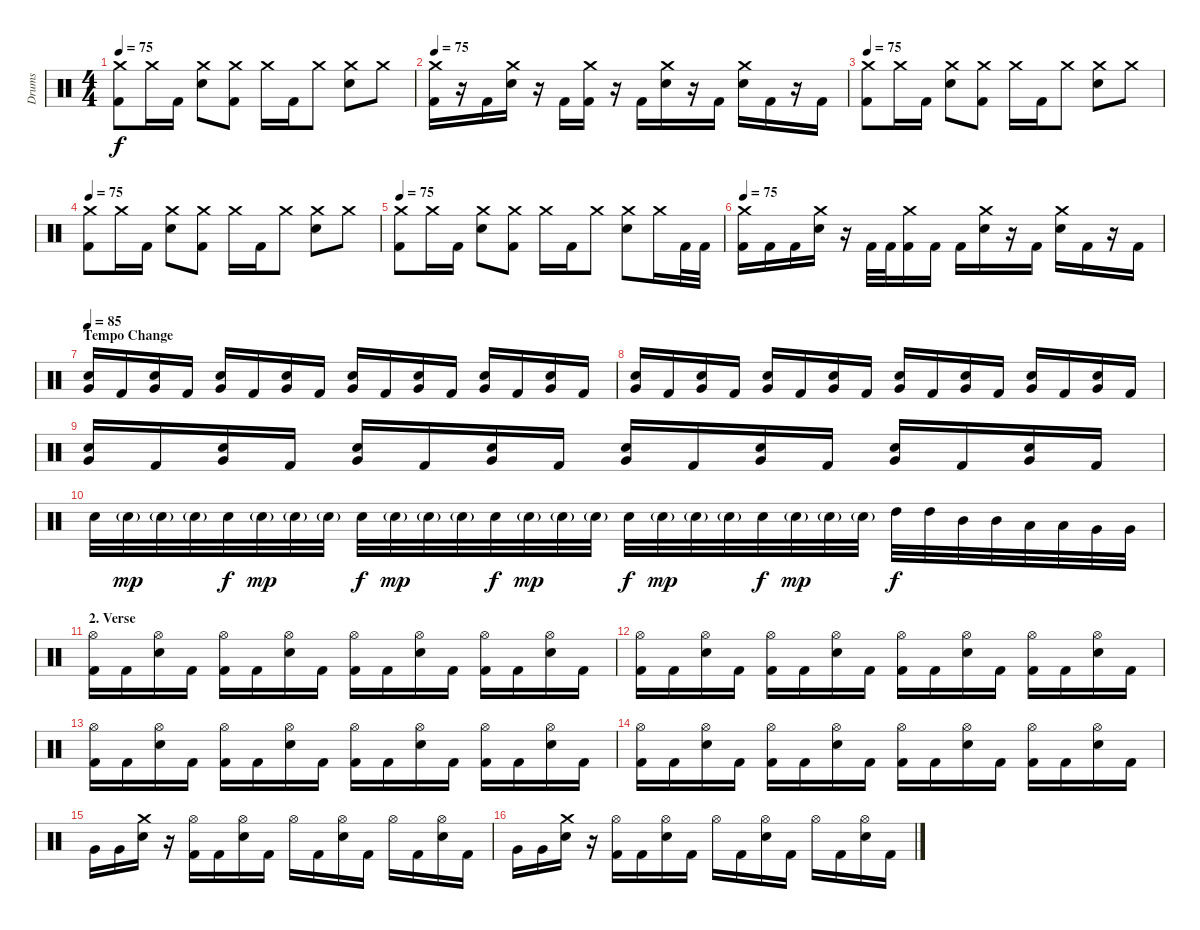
\track ("Drums" "Drums") {instrument percussion}
\staff {score}
\articulation defaults
\ts (4 4)
\tempo 75
\clef neutral
\ks c
("Crash medium (hit)" "Kick (hit) 2").8{dy f} "Crash medium (hit)".16 "Kick (hit) 2".16 ("Crash medium (hit)" "Electric Snare (hit)").8 ("Crash medium (hit)" "Kick (hit) 2").8 "Crash medium (hit)".16 "Kick (hit) 2".16 "Crash medium (hit)".8 ("Crash medium (hit)" "Electric Snare (hit)").8 "Crash medium (hit)".8 |
\tempo 70
\tempo 75
("Crash medium (hit)" "Kick (hit) 2").16 r.16 "Kick (hit) 2".16 ("Crash medium (hit)" "Electric Snare (hit)").16 r.16 "Kick (hit) 2".16 ("Crash medium (hit)" "Kick (hit) 2").16 r.16 "Kick (hit) 2".16 ("Crash medium (hit)" "Electric Snare (hit)").16 r.16 "Kick (hit) 2".16 ("Crash medium (hit)" "Electric Snare (hit)").16 "Kick (hit) 2".16 r.16 "Kick (hit) 2".16 |
\tempo 75
("Crash medium (hit)" "Kick (hit) 2").8 "Crash medium (hit)".16 "Kick (hit) 2".16 ("Crash medium (hit)" "Electric Snare (hit)").8 ("Crash medium (hit)" "Kick (hit) 2").8 "Crash medium (hit)".16 "Kick (hit) 2".16 "Crash medium (hit)".8 ("Crash medium (hit)" "Electric Snare (hit)").8 "Crash medium (hit)".8 |
\tempo 75
("Crash medium (hit)" "Kick (hit) 2").8 "Crash medium (hit)".16 "Kick (hit) 2".16 ("Crash medium (hit)" "Electric Snare (hit)").8 ("Crash medium (hit)" "Kick (hit) 2").8 "Crash medium (hit)".16 "Kick (hit) 2".16 "Crash medium (hit)".8 ("Crash medium (hit)" "Electric Snare (hit)").8 "Crash medium (hit)".8 |
\tempo 75
("Crash medium (hit)" "Kick (hit) 2").8 "Crash medium (hit)".16 "Kick (hit) 2".16 ("Crash medium (hit)" "Electric Snare (hit)").8 ("Crash medium (hit)" "Kick (hit) 2").8 "Crash medium (hit)".16 "Kick (hit) 2".16 "Crash medium (hit)".8 ("Crash medium (hit)" "Electric Snare (hit)").8 "Crash medium (hit)".16 "Kick (hit) 2".32 "Kick (hit) 2".32 |
\tempo 75
("Crash medium (hit)" "Kick (hit) 2").16 "Kick (hit) 2".16 "Kick (hit) 2".16 ("Crash medium (hit)" "Electric Snare (hit)").16 r.16 "Kick (hit) 2".32 "Kick (hit) 2".32 ("Crash medium (hit)" "Kick (hit) 2").16 "Kick (hit) 2".16 "Kick (hit) 2".16 ("Crash medium (hit)" "Electric Snare (hit)").16 r.16 "Kick (hit) 2".16 ("Crash medium (hit)" "Electric Snare (hit)").16 "Kick (hit) 2".16 r.16 "Kick (hit) 2".16 |
\section ("" "Tempo Change")
\tempo 85
("Electric Snare (hit)" "Very Low Tom (hit)").16 "Kick (hit) 2".16 ("Electric Snare (hit)" "Very Low Tom (hit)").16 "Kick (hit) 2".16 ("Electric Snare (hit)" "Very Low Tom (hit)").16 "Kick (hit) 2".16 ("Electric Snare (hit)" "Very Low Tom (hit)").16 "Kick (hit) 2".16 ("Electric Snare (hit)" "Very Low Tom (hit)").16 "Kick (hit) 2".16 ("Electric Snare (hit)" "Very Low Tom (hit)").16 "Kick (hit) 2".16 ("Electric Snare (hit)" "Very Low Tom (hit)").16 "Kick (hit) 2".16 ("Electric Snare (hit)" "Very Low Tom (hit)").16 "Kick (hit) 2".16 |
("Electric Snare (hit)" "Very Low Tom (hit)").16 "Kick (hit) 2".16 ("Electric Snare (hit)" "Very Low Tom (hit)").16 "Kick (hit) 2".16 ("Electric Snare (hit)" "Very Low Tom (hit)").16 "Kick (hit) 2".16 ("Electric Snare (hit)" "Very Low Tom (hit)").16 "Kick (hit) 2".16 ("Electric Snare (hit)" "Very Low Tom (hit)").16 "Kick (hit) 2".16 ("Electric Snare (hit)" "Very Low Tom (hit)").16 "Kick (hit) 2".16 ("Electric Snare (hit)" "Very Low Tom (hit)").16 "Kick (hit) 2".16 ("Electric Snare (hit)" "Very Low Tom (hit)").16 "Kick (hit) 2".16 |
("Electric Snare (hit)" "Very Low Tom (hit)").16 "Kick (hit) 2".16 ("Electric Snare (hit)" "Very Low Tom (hit)").16 "Kick (hit) 2".16 ("Electric Snare (hit)" "Very Low Tom (hit)").16 "Kick (hit) 2".16 ("Electric Snare (hit)" "Very Low Tom (hit)").16 "Kick (hit) 2".16 ("Electric Snare (hit)" "Very Low Tom (hit)").16 "Kick (hit) 2".16 ("Electric Snare (hit)" "Very Low Tom (hit)").16 "Kick (hit) 2".16 ("Electric Snare (hit)" "Very Low Tom (hit)").16 "Kick (hit) 2".16 ("Electric Snare (hit)" "Very Low Tom (hit)").16 "Kick (hit) 2".16 |
"Electric Snare (hit)".32{volume 8} "Electric Snare (hit)"{g}.32{dy mp volume 13} "Electric Snare (hit)"{g}.32 "Electric Snare (hit)"{g}.32 "Electric Snare (hit)".32{dy f} "Electric Snare (hit)"{g}.32{dy mp} "Electric Snare (hit)"{g}.32 "Electric Snare (hit)"{g}.32 "Electric Snare (hit)".32{dy f} "Electric Snare (hit)"{g}.32{dy mp} "Electric Snare (hit)"{g}.32 "Electric Snare (hit)"{g}.32 "Electric Snare (hit)".32{dy f} "Electric Snare (hit)"{g}.32{dy mp} "Electric Snare (hit)"{g}.32 "Electric Snare (hit)"{g}.32 "Electric Snare (hit)".32{dy f} "Electric Snare (hit)"{g}.32{dy mp} "Electric Snare (hit)"{g}.32 "Electric Snare (hit)"{g}.32 "Electric Snare (hit)".32{dy f} "Electric Snare (hit)"{g}.32{dy mp} "Electric Snare (hit)"{g}.32 "Electric Snare (hit)"{g}.32 "High Tom (hit)".32{dy f} "High Tom (hit)".32 "Mid Tom (hit)".32 "Mid Tom (hit)".32 "Low Tom (hit)".32 "Low Tom (hit)".32 "Very Low Tom (hit)".32 "Very Low Tom (hit)".32 |
\section ("" "2. Verse")
("Hi-Hat (open)" "Kick (hit) 2").16 "Kick (hit) 2".16 ("Hi-Hat (open)" "Electric Snare (hit)").16 "Kick (hit) 2".16 ("Hi-Hat (open)" "Kick (hit) 2").16 "Kick (hit) 2".16 ("Hi-Hat (open)" "Electric Snare (hit)").16 "Kick (hit) 2".16 ("Hi-Hat (open)" "Kick (hit) 2").16 "Kick (hit) 2".16 ("Hi-Hat (open)" "Electric Snare (hit)").16 "Kick (hit) 2".16 ("Hi-Hat (open)" "Kick (hit) 2").16 "Kick (hit) 2".16 ("Hi-Hat (open)" "Electric Snare (hit)").16 "Kick (hit) 2".16 |
("Hi-Hat (open)" "Kick (hit) 2").16 "Kick (hit) 2".16 ("Hi-Hat (open)" "Electric Snare (hit)").16 "Kick (hit) 2".16 ("Hi-Hat (open)" "Kick (hit) 2").16 "Kick (hit) 2".16 ("Hi-Hat (open)" "Electric Snare (hit)").16 "Kick (hit) 2".16 ("Hi-Hat (open)" "Kick (hit) 2").16 "Kick (hit) 2".16 ("Hi-Hat (open)" "Electric Snare (hit)").16 "Kick (hit) 2".16 ("Hi-Hat (open)" "Kick (hit) 2").16 "Kick (hit) 2".16 ("Hi-Hat (open)" "Electric Snare (hit)").16 "Kick (hit) 2".16 |
("Hi-Hat (open)" "Kick (hit) 2").16 "Kick (hit) 2".16 ("Hi-Hat (open)" "Electric Snare (hit)").16 "Kick (hit) 2".16 ("Hi-Hat (open)" "Kick (hit) 2").16 "Kick (hit) 2".16 ("Hi-Hat (open)" "Electric Snare (hit)").16 "Kick (hit) 2".16 ("Hi-Hat (open)" "Kick (hit) 2").16 "Kick (hit) 2".16 ("Hi-Hat (open)" "Electric Snare (hit)").16 "Kick (hit) 2".16 ("Hi-Hat (open)" "Kick (hit) 2").16 "Kick (hit) 2".16 ("Hi-Hat (open)" "Electric Snare (hit)").16 "Kick (hit) 2".16 |
("Hi-Hat (open)" "Kick (hit) 2").16 "Kick (hit) 2".16 ("Hi-Hat (open)" "Electric Snare (hit)").16 "Kick (hit) 2".16 ("Hi-Hat (open)" "Kick (hit) 2").16 "Kick (hit) 2".16 ("Hi-Hat (open)" "Electric Snare (hit)").16 "Kick (hit) 2".16 ("Hi-Hat (open)" "Kick (hit) 2").16 "Kick (hit) 2".16 ("Hi-Hat (open)" "Electric Snare (hit)").16 "Kick (hit) 2".16 ("Hi-Hat (open)" "Kick (hit) 2").16 "Kick (hit) 2".16 ("Hi-Hat (open)" "Electric Snare (hit)").16 "Kick (hit) 2".16 |
"Very Low Tom (hit)".16 "Very Low Tom (hit)".16 ("Crash medium (hit)" "Electric Snare (hit)").16 r.16 ("Hi-Hat (open)" "Kick (hit) 2").16 "Kick (hit) 2".16 ("Hi-Hat (open)" "Electric Snare (hit)").16 "Kick (hit) 2".16 "Hi-Hat (open)".16 "Kick (hit) 2".16 ("Hi-Hat (open)" "Electric Snare (hit)").16 "Kick (hit) 2".16 "Hi-Hat (open)".16 "Kick (hit) 2".16 ("Hi-Hat (open)" "Electric Snare (hit)").16 "Kick (hit) 2".16 |
"Very Low Tom (hit)".16 "Very Low Tom (hit)".16 ("Crash medium (hit)" "Electric Snare (hit)").16 r.16 ("Hi-Hat (open)" "Kick (hit) 2").16 "Kick (hit) 2".16 ("Hi-Hat (open)" "Electric Snare (hit)").16 "Kick (hit) 2".16 "Hi-Hat (open)".16 "Kick (hit) 2".16 ("Hi-Hat (open)" "Electric Snare (hit)").16 "Kick (hit) 2".16 "Hi-Hat (open)".16 "Kick (hit) 2".16 ("Hi-Hat (open)" "Electric Snare (hit)").16 "Kick (hit) 2".16
